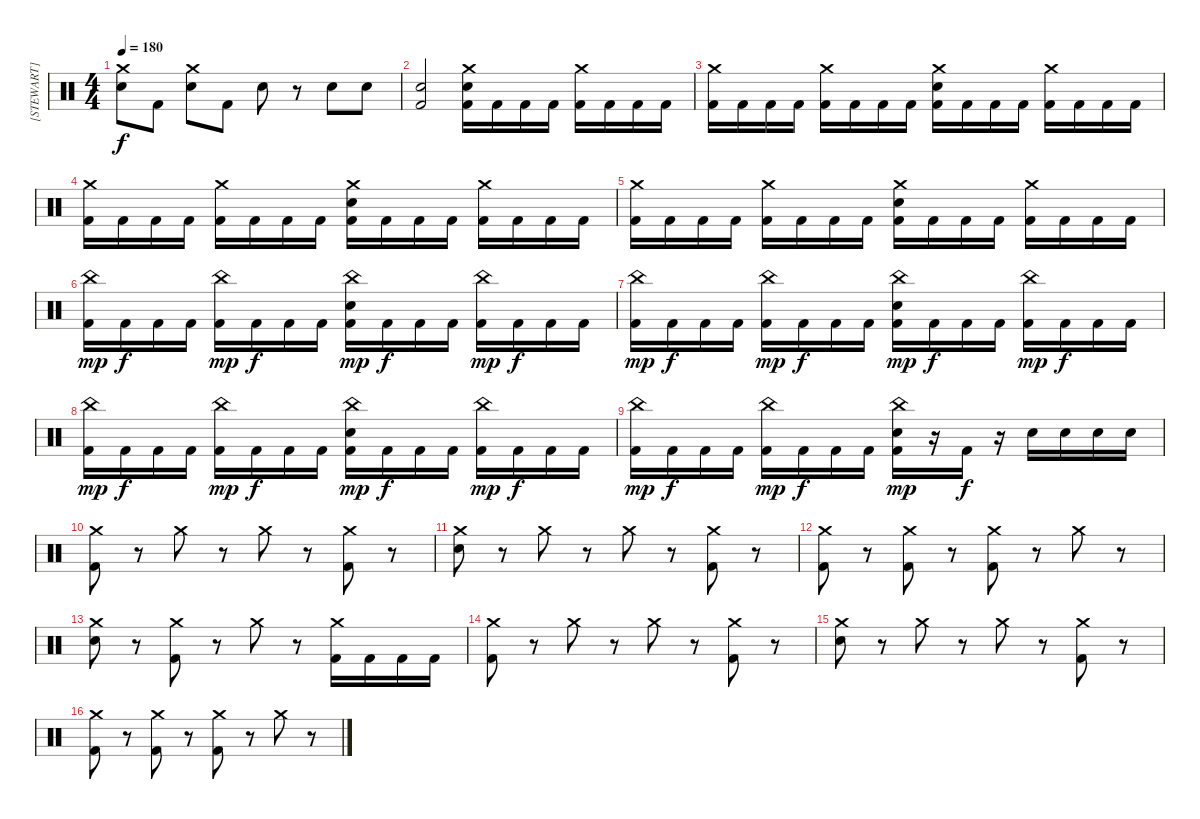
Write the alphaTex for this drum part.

\track ("[STEWART]" "[STEWART]") {instrument percussion}
\staff {score}
\articulation defaults
\ts (4 4)
\tempo 180
\clef neutral
\ks c
("Crash medium (hit)" "Snare (hit) 2").8{dy f} "Kick (hit) 2".8 ("Crash medium (hit)" "Snare (hit) 2").8 "Kick (hit) 2".8 "Snare (hit) 2".8 r.8 "Snare (hit) 2".8 "Snare (hit) 2".8 |
("Snare (hit) 2" "Kick (hit) 2").2 ("Crash medium (hit)" "Snare (hit) 2" "Kick (hit) 2").16 "Kick (hit) 2".16 "Kick (hit) 2".16 "Kick (hit) 2".16 ("Crash medium (hit)" "Kick (hit) 2").16 "Kick (hit) 2".16 "Kick (hit) 2".16 "Kick (hit) 2".16 |
("Crash medium (hit)" "Kick (hit) 2").16 "Kick (hit) 2".16 "Kick (hit) 2".16 "Kick (hit) 2".16 ("Crash medium (hit)" "Kick (hit) 2").16 "Kick (hit) 2".16 "Kick (hit) 2".16 "Kick (hit) 2".16 ("Crash medium (hit)" "Snare (hit) 2" "Kick (hit) 2").16 "Kick (hit) 2".16 "Kick (hit) 2".16 "Kick (hit) 2".16 ("Crash medium (hit)" "Kick (hit) 2").16 "Kick (hit) 2".16 "Kick (hit) 2".16 "Kick (hit) 2".16 |
("Crash medium (hit)" "Kick (hit) 2").16 "Kick (hit) 2".16 "Kick (hit) 2".16 "Kick (hit) 2".16 ("Crash medium (hit)" "Kick (hit) 2").16 "Kick (hit) 2".16 "Kick (hit) 2".16 "Kick (hit) 2".16 ("Crash medium (hit)" "Snare (hit) 2" "Kick (hit) 2").16 "Kick (hit) 2".16 "Kick (hit) 2".16 "Kick (hit) 2".16 ("Crash medium (hit)" "Kick (hit) 2").16 "Kick (hit) 2".16 "Kick (hit) 2".16 "Kick (hit) 2".16 |
("Crash medium (hit)" "Kick (hit) 2").16 "Kick (hit) 2".16 "Kick (hit) 2".16 "Kick (hit) 2".16 ("Crash medium (hit)" "Kick (hit) 2").16 "Kick (hit) 2".16 "Kick (hit) 2".16 "Kick (hit) 2".16 ("Crash medium (hit)" "Snare (hit) 2" "Kick (hit) 2").16 "Kick (hit) 2".16 "Kick (hit) 2".16 "Kick (hit) 2".16 ("Crash medium (hit)" "Kick (hit) 2").16 "Kick (hit) 2".16 "Kick (hit) 2".16 "Kick (hit) 2".16 |
("China (hit)" "Kick (hit) 2").16{dy mp} "Kick (hit) 2".16{dy f} "Kick (hit) 2".16 "Kick (hit) 2".16 ("China (hit)" "Kick (hit) 2").16{dy mp} "Kick (hit) 2".16{dy f} "Kick (hit) 2".16 "Kick (hit) 2".16 ("China (hit)" "Snare (hit) 2" "Kick (hit) 2").16{dy mp} "Kick (hit) 2".16{dy f} "Kick (hit) 2".16 "Kick (hit) 2".16 ("China (hit)" "Kick (hit) 2").16{dy mp} "Kick (hit) 2".16{dy f} "Kick (hit) 2".16 "Kick (hit) 2".16 |
("China (hit)" "Kick (hit) 2").16{dy mp} "Kick (hit) 2".16{dy f} "Kick (hit) 2".16 "Kick (hit) 2".16 ("China (hit)" "Kick (hit) 2").16{dy mp} "Kick (hit) 2".16{dy f} "Kick (hit) 2".16 "Kick (hit) 2".16 ("China (hit)" "Snare (hit) 2" "Kick (hit) 2").16{dy mp} "Kick (hit) 2".16{dy f} "Kick (hit) 2".16 "Kick (hit) 2".16 ("China (hit)" "Kick (hit) 2").16{dy mp} "Kick (hit) 2".16{dy f} "Kick (hit) 2".16 "Kick (hit) 2".16 |
("China (hit)" "Kick (hit) 2").16{dy mp} "Kick (hit) 2".16{dy f} "Kick (hit) 2".16 "Kick (hit) 2".16 ("China (hit)" "Kick (hit) 2").16{dy mp} "Kick (hit) 2".16{dy f} "Kick (hit) 2".16 "Kick (hit) 2".16 ("China (hit)" "Snare (hit) 2" "Kick (hit) 2").16{dy mp} "Kick (hit) 2".16{dy f} "Kick (hit) 2".16 "Kick (hit) 2".16 ("China (hit)" "Kick (hit) 2").16{dy mp} "Kick (hit) 2".16{dy f} "Kick (hit) 2".16 "Kick (hit) 2".16 |
("China (hit)" "Kick (hit) 2").16{dy mp} "Kick (hit) 2".16{dy f} "Kick (hit) 2".16 "Kick (hit) 2".16 ("China (hit)" "Kick (hit) 2").16{dy mp} "Kick (hit) 2".16{dy f} "Kick (hit) 2".16 "Kick (hit) 2".16 ("China (hit)" "Snare (hit) 2" "Kick (hit) 2").16{dy mp} r.16 "Kick (hit) 2".16{dy f} r.16 "Snare (hit) 2".16 "Snare (hit) 2".16 "Snare (hit) 2".16 "Snare (hit) 2".16 |
("Crash medium (hit)" "Kick (hit) 2").8 r.8 "Crash medium (hit)".8 r.8 "Crash medium (hit)".8 r.8 ("Crash medium (hit)" "Kick (hit) 2").8 r.8 |
("Crash medium (hit)" "Snare (hit) 2").8 r.8 "Crash medium (hit)".8 r.8 "Crash medium (hit)".8 r.8 ("Crash medium (hit)" "Kick (hit) 2").8 r.8 |
("Crash medium (hit)" "Kick (hit) 2").8 r.8 ("Crash medium (hit)" "Kick (hit) 2").8 r.8 ("Crash medium (hit)" "Kick (hit) 2").8 r.8 "Crash medium (hit)".8 r.8 |
("Crash medium (hit)" "Snare (hit) 2").8 r.8 ("Crash medium (hit)" "Kick (hit) 2").8 r.8 "Crash medium (hit)".8 r.8 ("Crash medium (hit)" "Kick (hit) 2").16 "Kick (hit) 2".16 "Kick (hit) 2".16 "Kick (hit) 2".16 |
("Crash medium (hit)" "Kick (hit) 2").8 r.8 "Crash medium (hit)".8 r.8 "Crash medium (hit)".8 r.8 ("Crash medium (hit)" "Kick (hit) 2").8 r.8 |
("Crash medium (hit)" "Snare (hit) 2").8 r.8 "Crash medium (hit)".8 r.8 "Crash medium (hit)".8 r.8 ("Crash medium (hit)" "Kick (hit) 2").8 r.8 |
("Crash medium (hit)" "Kick (hit) 2").8 r.8 ("Crash medium (hit)" "Kick (hit) 2").8 r.8 ("Crash medium (hit)" "Kick (hit) 2").8 r.8 "Crash medium (hit)".8 r.8
